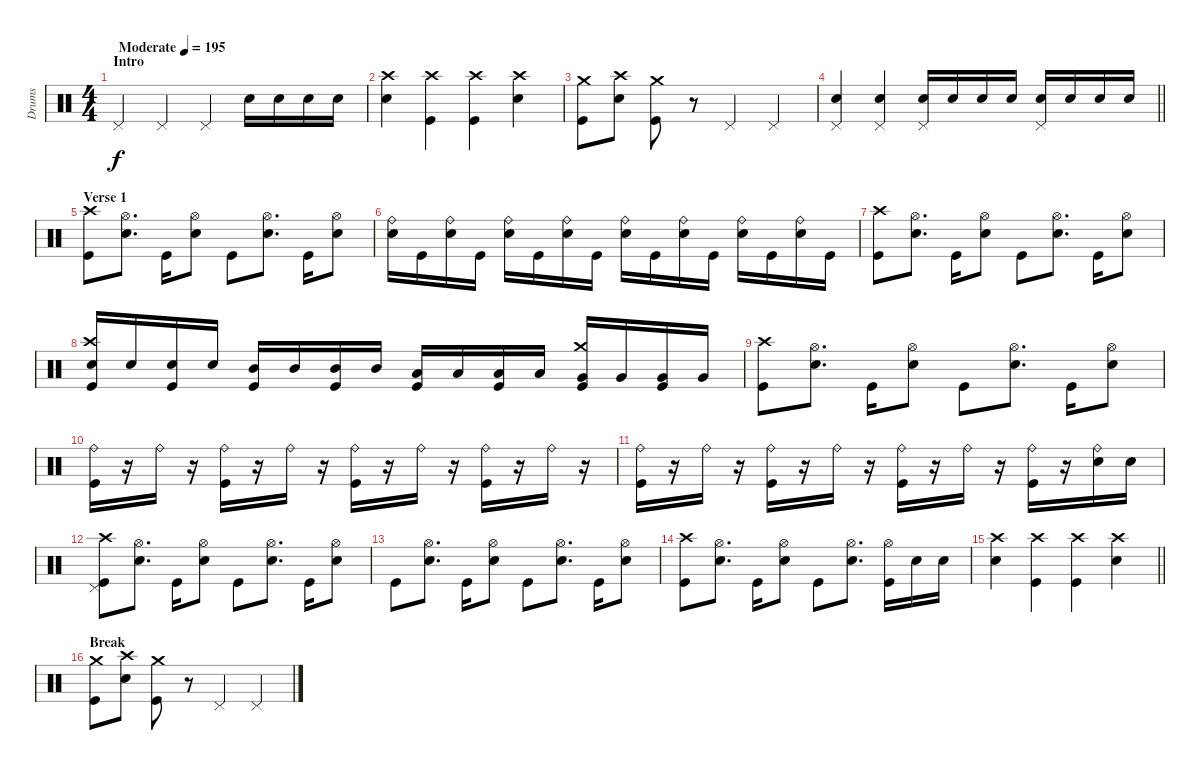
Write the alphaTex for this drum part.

\track ("Drums" "Drums") {instrument percussion}
\staff {score}
\articulation defaults
\ts (4 4)
\section ("" "Intro")
\tempo (195 "Moderate")
\clef neutral
\ks c "Pedal Hi-Hat (hit)".4{dy f} "Pedal Hi-Hat (hit)".4 "Pedal Hi-Hat (hit)".4 "Snare (hit) 2".16 "Snare (hit) 2".16 "Snare (hit) 2".16 "Snare (hit) 2".16
|
("Crash high (hit)" "Snare (hit) 2").4 ("Crash high (hit)" "Kick (hit)").4 ("Crash high (hit)" "Kick (hit)").4 ("Crash high (hit)" "Snare (hit) 2").4 |
("Crash medium (hit)" "Kick (hit)").8 ("Crash high (hit)" "Snare (hit) 2").8 ("Crash medium (hit)" "Kick (hit)").8 r.8 "Pedal Hi-Hat (hit)".4 "Pedal Hi-Hat (hit)".4 |
\barLineRight lightlight
("Pedal Hi-Hat (hit)" "Snare (hit) 2").4 ("Pedal Hi-Hat (hit)" "Snare (hit) 2").4 ("Pedal Hi-Hat (hit)" "Snare (hit) 2").16 "Snare (hit) 2".16 "Snare (hit) 2".16 "Snare (hit) 2".16 ("Pedal Hi-Hat (hit)" "Snare (hit) 2").16 "Snare (hit) 2".16 "Snare (hit) 2".16 "Snare (hit) 2".16 |
\section ("" "Verse 1")
("Crash high (hit)" "Kick (hit)").8 ("Hi-Hat (open)" "Snare (hit) 2").8{d} "Kick (hit)".16 ("Hi-Hat (open)" "Snare (hit) 2").8 "Kick (hit)".8 ("Hi-Hat (open)" "Snare (hit) 2").8{d} "Kick (hit)".16 ("Hi-Hat (open)" "Snare (hit) 2").8 |
("Ride (bell)" "Snare (hit) 2").16 "Kick (hit)".16 ("Ride (bell)" "Snare (hit) 2").16 "Kick (hit)".16 ("Ride (bell)" "Snare (hit) 2").16 "Kick (hit)".16 ("Ride (bell)" "Snare (hit) 2").16 "Kick (hit)".16 ("Ride (bell)" "Snare (hit) 2").16 "Kick (hit)".16 ("Ride (bell)" "Snare (hit) 2").16 "Kick (hit)".16 ("Ride (bell)" "Snare (hit) 2").16 "Kick (hit)".16 ("Ride (bell)" "Snare (hit) 2").16 "Kick (hit)".16 |
("Crash high (hit)" "Kick (hit)").8 ("Hi-Hat (open)" "Snare (hit) 2").8{d} "Kick (hit)".16 ("Hi-Hat (open)" "Snare (hit) 2").8 "Kick (hit)".8 ("Hi-Hat (open)" "Snare (hit) 2").8{d} "Kick (hit)".16 ("Hi-Hat (open)" "Snare (hit) 2").8 |
("Crash high (hit)" "Snare (hit) 2" "Kick (hit)").16 "Snare (hit) 2".16 ("Snare (hit) 2" "Kick (hit)").16 "Snare (hit) 2".16 ("Mid Tom (hit)" "Kick (hit)").16 "Mid Tom (hit)".16 ("Mid Tom (hit)" "Kick (hit)").16 "Mid Tom (hit)".16 ("Low Tom (hit)" "Kick (hit)").16 "Low Tom (hit)".16 ("Low Tom (hit)" "Kick (hit)").16 "Low Tom (hit)".16 ("Crash medium (hit)" "Very Low Tom (hit)" "Kick (hit)").16 "Very Low Tom (hit)".16 ("Very Low Tom (hit)" "Kick (hit)").16 "Very Low Tom (hit)".16 |
("Crash high (hit)" "Kick (hit)").8 ("Hi-Hat (open)" "Snare (hit) 2").8{d} "Kick (hit)".16 ("Hi-Hat (open)" "Snare (hit) 2").8 "Kick (hit)".8 ("Hi-Hat (open)" "Snare (hit) 2").8{d} "Kick (hit)".16 ("Hi-Hat (open)" "Snare (hit) 2").8 |
("Ride (bell)" "Kick (hit)").16 r.16 "Ride (bell)".16 r.16 ("Ride (bell)" "Kick (hit)").16 r.16 "Ride (bell)".16 r.16 ("Ride (bell)" "Kick (hit)").16 r.16 "Ride (bell)".16 r.16 ("Ride (bell)" "Kick (hit)").16 r.16 "Ride (bell)".16 r.16 |
("Ride (bell)" "Kick (hit)").16 r.16 "Ride (bell)".16 r.16 ("Ride (bell)" "Kick (hit)").16 r.16 "Ride (bell)".16 r.16 ("Ride (bell)" "Kick (hit)").16 r.16 "Ride (bell)".16 r.16 ("Ride (bell)" "Kick (hit)").16 r.16 ("Ride (bell)" "Snare (hit) 2").16 "Snare (hit) 2".16 |
("Crash high (hit)" "Pedal Hi-Hat (hit)" "Kick (hit)").8 ("Hi-Hat (open)" "Snare (hit) 2").8{d} "Kick (hit)".16 ("Hi-Hat (open)" "Snare (hit) 2").8 "Kick (hit)".8 ("Hi-Hat (open)" "Snare (hit) 2").8{d} "Kick (hit)".16 ("Hi-Hat (open)" "Snare (hit) 2").8 |
"Kick (hit)".8 ("Hi-Hat (open)" "Snare (hit) 2").8{d} "Kick (hit)".16 ("Hi-Hat (open)" "Snare (hit) 2").8 "Kick (hit)".8 ("Hi-Hat (open)" "Snare (hit) 2").8{d} "Kick (hit)".16 ("Hi-Hat (open)" "Snare (hit) 2").8 |
("Crash high (hit)" "Kick (hit)").8 ("Hi-Hat (open)" "Snare (hit) 2").8{d} "Kick (hit)".16 ("Hi-Hat (open)" "Snare (hit) 2").8 "Kick (hit)".8 ("Hi-Hat (open)" "Snare (hit) 2").8{d} ("Hi-Hat (open)" "Kick (hit)").16 "Snare (hit) 2".16 "Snare (hit) 2".16 |
\barLineRight lightlight
("Crash high (hit)" "Snare (hit) 2").4 ("Crash high (hit)" "Kick (hit)").4 ("Crash high (hit)" "Kick (hit)").4 ("Crash high (hit)" "Snare (hit) 2").4 |
\section ("" "Break")
("Crash medium (hit)" "Kick (hit)").8 ("Crash high (hit)" "Snare (hit) 2").8 ("Crash medium (hit)" "Kick (hit)").8 r.8 "Pedal Hi-Hat (hit)".4 "Pedal Hi-Hat (hit)".4
